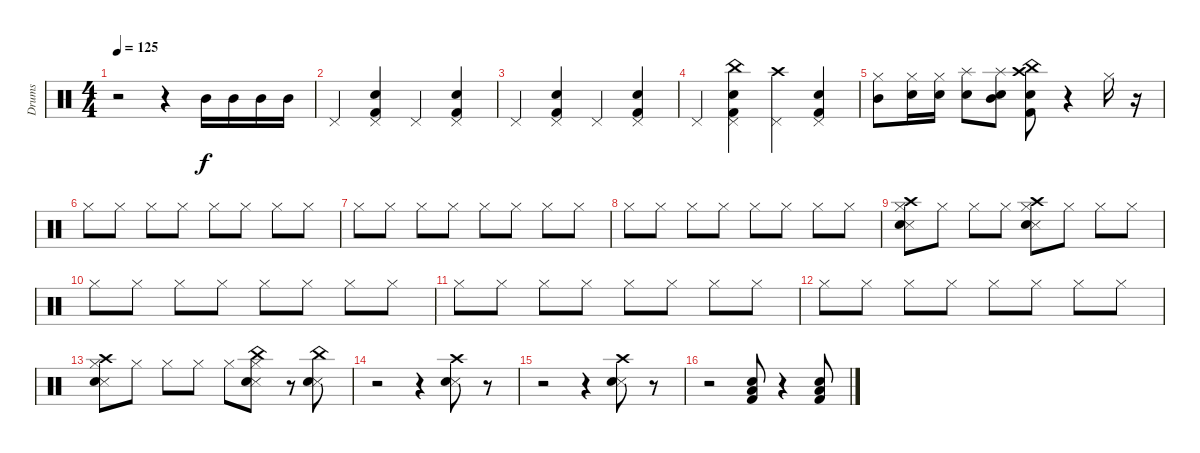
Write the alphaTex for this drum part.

\track ("Drums" "Drums") {instrument percussion}
\staff {score}
\articulation defaults
\ts (4 4)
\tempo 125
\clef neutral
\ks c
r.2{dy f} r.4 "Mid Tom (hit)".16 "Mid Tom (hit)".16 "Mid Tom (hit)".16 "Mid Tom (hit)".16 |
"Pedal Hi-Hat (hit)".4 ("Pedal Hi-Hat (hit)" "Kick (hit) 2" "Snare (hit) 2").4 "Pedal Hi-Hat (hit)".4 ("Pedal Hi-Hat (hit)" "Kick (hit) 2" "Snare (hit) 2").4 |
"Pedal Hi-Hat (hit)".4 ("Pedal Hi-Hat (hit)" "Kick (hit) 2" "Snare (hit) 2").4 "Pedal Hi-Hat (hit)".4 ("Pedal Hi-Hat (hit)" "Kick (hit) 2" "Snare (hit) 2").4 |
"Pedal Hi-Hat (hit)".4 ("Pedal Hi-Hat (hit)" "Kick (hit) 2" "Snare (hit) 2" "China (hit)").4 ("Pedal Hi-Hat (hit)" "Crash high (hit)").4 ("Pedal Hi-Hat (hit)" "Kick (hit) 2" "Snare (hit) 2").4 |
("Mid Tom (hit)" "Hi-Hat (closed)").8 ("Snare (hit) 2" "Hi-Hat (closed)").16 ("Snare (hit) 2" "Hi-Hat (closed)").16 ("Snare (hit) 2" "Splash (hit)").8 ("Snare (hit) 2" "Mid Tom (hit)" "Splash (hit)").8 ("Snare (hit) 2" "Crash high (hit)" "China (hit)" "Kick (hit) 2").8 r.4 "Hi-Hat (closed)".16 r.16 |
"Hi-Hat (closed)".8 "Hi-Hat (closed)".8 "Hi-Hat (closed)".8 "Hi-Hat (closed)".8 "Hi-Hat (closed)".8 "Hi-Hat (closed)".8 "Hi-Hat (closed)".8 "Hi-Hat (closed)".8 |
"Hi-Hat (closed)".8 "Hi-Hat (closed)".8 "Hi-Hat (closed)".8 "Hi-Hat (closed)".8 "Hi-Hat (closed)".8 "Hi-Hat (closed)".8 "Hi-Hat (closed)".8 "Hi-Hat (closed)".8 |
"Hi-Hat (closed)".8 "Hi-Hat (closed)".8 "Hi-Hat (closed)".8 "Hi-Hat (closed)".8 "Hi-Hat (closed)".8 "Hi-Hat (closed)".8 "Hi-Hat (closed)".8 "Hi-Hat (closed)".8 |
("Hi-Hat (closed)" "Snare (side stick) 3" "Snare (hit) 2" "Crash high (hit)").8 "Hi-Hat (closed)".8 "Hi-Hat (closed)".8 "Hi-Hat (closed)".8 ("Hi-Hat (closed)" "Snare (side stick) 3" "Snare (hit) 2" "Crash high (hit)").8 "Hi-Hat (closed)".8 "Hi-Hat (closed)".8 "Hi-Hat (closed)".8 |
"Hi-Hat (closed)".8 "Hi-Hat (closed)".8 "Hi-Hat (closed)".8 "Hi-Hat (closed)".8 "Hi-Hat (closed)".8 "Hi-Hat (closed)".8 "Hi-Hat (closed)".8 "Hi-Hat (closed)".8 |
"Hi-Hat (closed)".8 "Hi-Hat (closed)".8 "Hi-Hat (closed)".8 "Hi-Hat (closed)".8 "Hi-Hat (closed)".8 "Hi-Hat (closed)".8 "Hi-Hat (closed)".8 "Hi-Hat (closed)".8 |
"Hi-Hat (closed)".8 "Hi-Hat (closed)".8 "Hi-Hat (closed)".8 "Hi-Hat (closed)".8 "Hi-Hat (closed)".8 "Hi-Hat (closed)".8 "Hi-Hat (closed)".8 "Hi-Hat (closed)".8 |
("Hi-Hat (closed)" "Snare (side stick) 3" "Snare (hit) 2" "Crash high (hit)").8 "Hi-Hat (closed)".8 "Hi-Hat (closed)".8 "Hi-Hat (closed)".8 "Hi-Hat (closed)".8 ("Hi-Hat (closed)" "Snare (side stick) 3" "Snare (hit) 2" "China (hit)").8 r.8 ("Snare (side stick) 3" "Snare (hit) 2" "China (hit)").8 |
r.2 r.4 ("Snare (side stick) 3" "Snare (hit) 2" "Crash high (hit)").8 r.8 |
r.2 r.4 ("Snare (side stick) 3" "Snare (hit) 2" "Crash high (hit)").8 r.8 |
r.2 ("Snare (hit) 2" "Kick (hit) 2" "Low Tom (hit)").8 r.4 ("Snare (hit) 2" "Kick (hit) 2" "Low Tom (hit)").8
